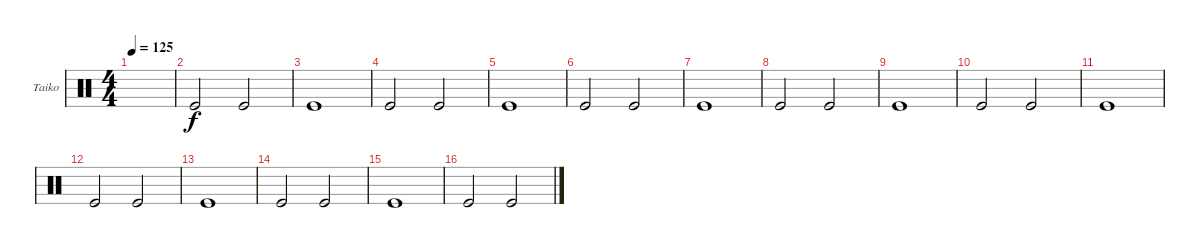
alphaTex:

\defaultSystemsLayout 4
\bracketExtendMode groupsimilarinstruments
\firstSystemTrackNameOrientation horizontal
\otherSystemsTrackNameOrientation horizontal
\track ("Taiko Drum" "Taiko") {instrument percussion}
\staff {score}
\articulation defaults
\ts (4 4)
\tempo 125
\clef neutral
\scale
0.474178
\ks c
|
\scale
0.262911 "Kick (hit)".2 "Kick (hit)".2 |
"Kick (hit)".1 |
"Kick (hit)".2 "Kick (hit)".2 |
"Kick (hit)".1 |
\scale
0.262911 "Kick (hit)".2 "Kick (hit)".2 |
\scale
0.333333 "Kick (hit)".1 |
\scale
0.333333 "Kick (hit)".2 "Kick (hit)".2 |
"Kick (hit)".1 |
\scale
0.333333 "Kick (hit)".2 "Kick (hit)".2 |
\scale
0.333333 "Kick (hit)".1 |
\scale
0.333333 "Kick (hit)".2 "Kick (hit)".2 |
\scale
0.333333 "Kick (hit)".1 |
\scale
0.333333 "Kick (hit)".2 "Kick (hit)".2 |
\scale
0.333333 "Kick (hit)".1 |
\scale
0.333333 "Kick (hit)".2 "Kick (hit)".2
